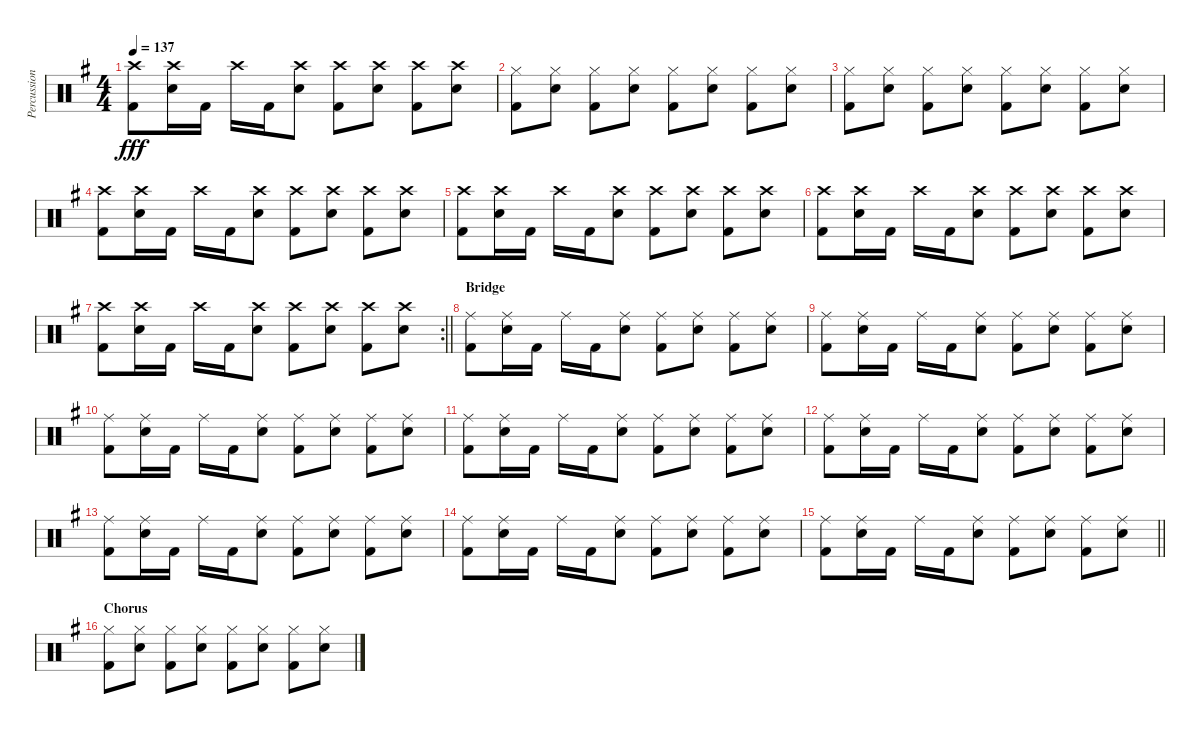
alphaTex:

\track ("Percussion" "Percussion") {instrument percussion}
\staff {score}
\articulation defaults
\ts (4 4)
\tempo 137
\clef neutral
\ks g
("Crash high (hit)" "Kick (hit) 2").8{dy fff} ("Crash high (hit)" "Electric Snare (hit)").16 "Kick (hit) 2".16 "Crash high (hit)".16 "Kick (hit) 2".16 ("Crash high (hit)" "Electric Snare (hit)").8 ("Crash high (hit)" "Kick (hit) 2").8 ("Crash high (hit)" "Electric Snare (hit)").8 ("Crash high (hit)" "Kick (hit) 2").8 ("Crash high (hit)" "Electric Snare (hit)").8 |
("Hi-Hat (closed)" "Kick (hit) 2").8 ("Hi-Hat (closed)" "Electric Snare (hit)").8 ("Hi-Hat (closed)" "Kick (hit) 2").8 ("Hi-Hat (closed)" "Electric Snare (hit)").8 ("Hi-Hat (closed)" "Kick (hit) 2").8 ("Hi-Hat (closed)" "Electric Snare (hit)").8 ("Hi-Hat (closed)" "Kick (hit) 2").8 ("Hi-Hat (closed)" "Electric Snare (hit)").8 |
("Hi-Hat (closed)" "Kick (hit) 2").8 ("Hi-Hat (closed)" "Electric Snare (hit)").8 ("Hi-Hat (closed)" "Kick (hit) 2").8 ("Hi-Hat (closed)" "Electric Snare (hit)").8 ("Hi-Hat (closed)" "Kick (hit) 2").8 ("Hi-Hat (closed)" "Electric Snare (hit)").8 ("Hi-Hat (closed)" "Kick (hit) 2").8 ("Hi-Hat (closed)" "Electric Snare (hit)").8 |
("Crash high (hit)" "Kick (hit) 2").8 ("Crash high (hit)" "Electric Snare (hit)").16 "Kick (hit) 2".16 "Crash high (hit)".16 "Kick (hit) 2".16 ("Crash high (hit)" "Electric Snare (hit)").8 ("Crash high (hit)" "Kick (hit) 2").8 ("Crash high (hit)" "Electric Snare (hit)").8 ("Crash high (hit)" "Kick (hit) 2").8 ("Crash high (hit)" "Electric Snare (hit)").8 |
("Crash high (hit)" "Kick (hit) 2").8 ("Crash high (hit)" "Electric Snare (hit)").16 "Kick (hit) 2".16 "Crash high (hit)".16 "Kick (hit) 2".16 ("Crash high (hit)" "Electric Snare (hit)").8 ("Crash high (hit)" "Kick (hit) 2").8 ("Crash high (hit)" "Electric Snare (hit)").8 ("Crash high (hit)" "Kick (hit) 2").8 ("Crash high (hit)" "Electric Snare (hit)").8 |
("Crash high (hit)" "Kick (hit) 2").8 ("Crash high (hit)" "Electric Snare (hit)").16 "Kick (hit) 2".16 "Crash high (hit)".16 "Kick (hit) 2".16 ("Crash high (hit)" "Electric Snare (hit)").8 ("Crash high (hit)" "Kick (hit) 2").8 ("Crash high (hit)" "Electric Snare (hit)").8 ("Crash high (hit)" "Kick (hit) 2").8 ("Crash high (hit)" "Electric Snare (hit)").8 |
\rc 2
\barLineRight lightlight
("Crash high (hit)" "Kick (hit) 2").8 ("Crash high (hit)" "Electric Snare (hit)").16 "Kick (hit) 2".16 "Crash high (hit)".16 "Kick (hit) 2".16 ("Crash high (hit)" "Electric Snare (hit)").8 ("Crash high (hit)" "Kick (hit) 2").8 ("Crash high (hit)" "Electric Snare (hit)").8 ("Crash high (hit)" "Kick (hit) 2").8 ("Crash high (hit)" "Electric Snare (hit)").8 |
\section ("" "Bridge")
("Ride (middle)" "Kick (hit) 2").8 ("Ride (middle)" "Electric Snare (hit)").16 "Kick (hit) 2".16 "Ride (middle)".16 "Kick (hit) 2".16 ("Ride (middle)" "Electric Snare (hit)").8 ("Ride (middle)" "Kick (hit) 2").8 ("Ride (middle)" "Electric Snare (hit)").8 ("Ride (middle)" "Kick (hit) 2").8 ("Ride (middle)" "Electric Snare (hit)").8 |
("Ride (middle)" "Kick (hit) 2").8 ("Ride (middle)" "Electric Snare (hit)").16 "Kick (hit) 2".16 "Ride (middle)".16 "Kick (hit) 2".16 ("Ride (middle)" "Electric Snare (hit)").8 ("Ride (middle)" "Kick (hit) 2").8 ("Ride (middle)" "Electric Snare (hit)").8 ("Ride (middle)" "Kick (hit) 2").8 ("Ride (middle)" "Electric Snare (hit)").8 |
("Ride (middle)" "Kick (hit) 2").8 ("Ride (middle)" "Electric Snare (hit)").16 "Kick (hit) 2".16 "Ride (middle)".16 "Kick (hit) 2".16 ("Ride (middle)" "Electric Snare (hit)").8 ("Ride (middle)" "Kick (hit) 2").8 ("Ride (middle)" "Electric Snare (hit)").8 ("Ride (middle)" "Kick (hit) 2").8 ("Ride (middle)" "Electric Snare (hit)").8 |
("Ride (middle)" "Kick (hit) 2").8 ("Ride (middle)" "Electric Snare (hit)").16 "Kick (hit) 2".16 "Ride (middle)".16 "Kick (hit) 2".16 ("Ride (middle)" "Electric Snare (hit)").8 ("Ride (middle)" "Kick (hit) 2").8 ("Ride (middle)" "Electric Snare (hit)").8 ("Ride (middle)" "Kick (hit) 2").8 ("Ride (middle)" "Electric Snare (hit)").8 |
("Ride (middle)" "Kick (hit) 2").8 ("Ride (middle)" "Electric Snare (hit)").16 "Kick (hit) 2".16 "Ride (middle)".16 "Kick (hit) 2".16 ("Ride (middle)" "Electric Snare (hit)").8 ("Ride (middle)" "Kick (hit) 2").8 ("Ride (middle)" "Electric Snare (hit)").8 ("Ride (middle)" "Kick (hit) 2").8 ("Ride (middle)" "Electric Snare (hit)").8 |
("Ride (middle)" "Kick (hit) 2").8 ("Ride (middle)" "Electric Snare (hit)").16 "Kick (hit) 2".16 "Ride (middle)".16 "Kick (hit) 2".16 ("Ride (middle)" "Electric Snare (hit)").8 ("Ride (middle)" "Kick (hit) 2").8 ("Ride (middle)" "Electric Snare (hit)").8 ("Ride (middle)" "Kick (hit) 2").8 ("Ride (middle)" "Electric Snare (hit)").8 |
("Ride (middle)" "Kick (hit) 2").8 ("Ride (middle)" "Electric Snare (hit)").16 "Kick (hit) 2".16 "Ride (middle)".16 "Kick (hit) 2".16 ("Ride (middle)" "Electric Snare (hit)").8 ("Ride (middle)" "Kick (hit) 2").8 ("Ride (middle)" "Electric Snare (hit)").8 ("Ride (middle)" "Kick (hit) 2").8 ("Ride (middle)" "Electric Snare (hit)").8 |
\barLineRight lightlight
("Ride (middle)" "Kick (hit) 2").8 ("Ride (middle)" "Electric Snare (hit)").16 "Kick (hit) 2".16 "Ride (middle)".16 "Kick (hit) 2".16 ("Ride (middle)" "Electric Snare (hit)").8 ("Ride (middle)" "Kick (hit) 2").8 ("Ride (middle)" "Electric Snare (hit)").8 ("Ride (middle)" "Kick (hit) 2").8 ("Ride (middle)" "Electric Snare (hit)").8 |
\section ("" "Chorus")
("Hi-Hat (closed)" "Kick (hit) 2").8 ("Hi-Hat (closed)" "Electric Snare (hit)").8 ("Hi-Hat (closed)" "Kick (hit) 2").8 ("Hi-Hat (closed)" "Electric Snare (hit)").8 ("Hi-Hat (closed)" "Kick (hit) 2").8 ("Hi-Hat (closed)" "Electric Snare (hit)").8 ("Hi-Hat (closed)" "Kick (hit) 2").8 ("Hi-Hat (closed)" "Electric Snare (hit)").8
